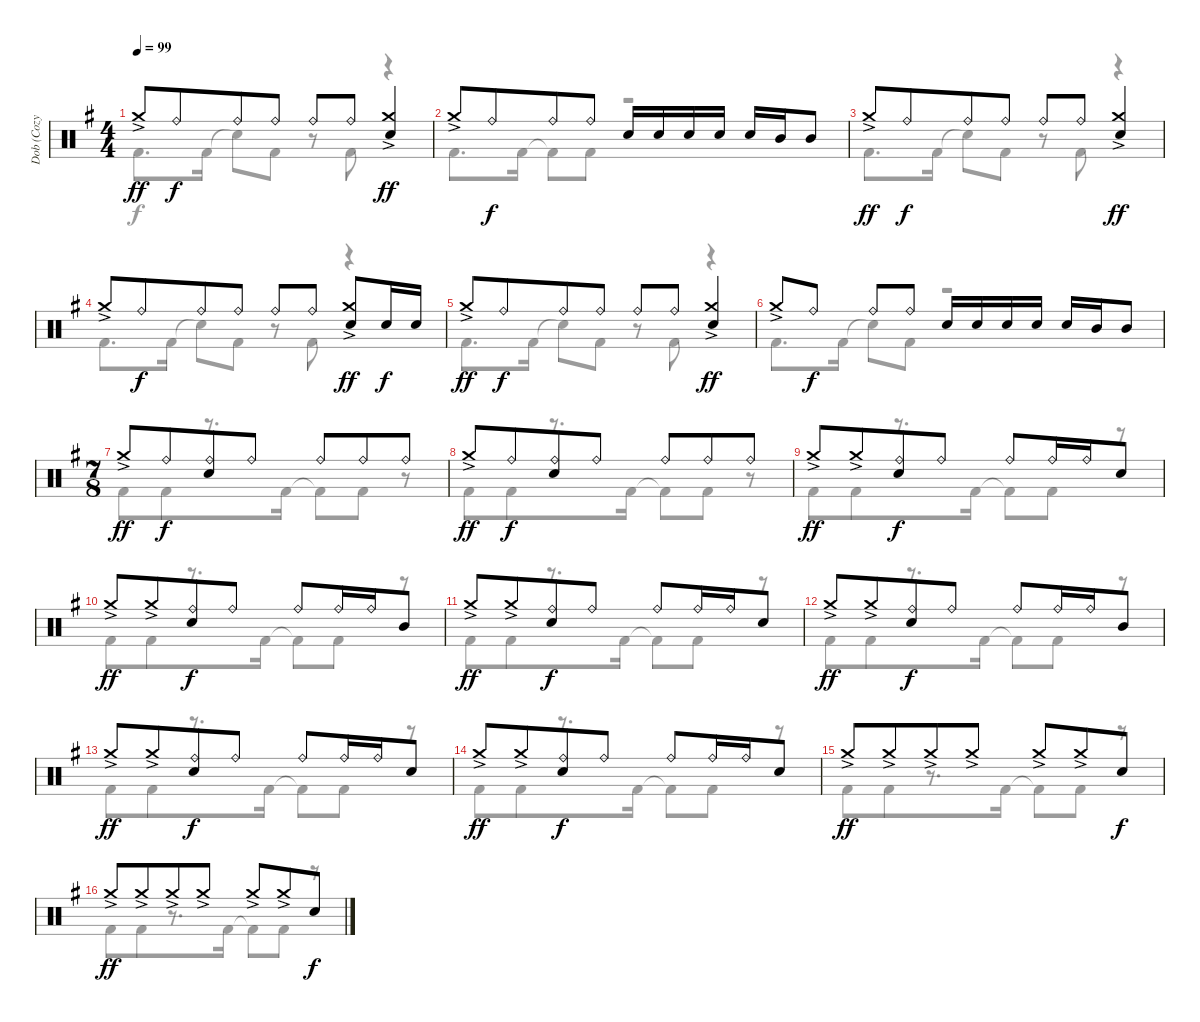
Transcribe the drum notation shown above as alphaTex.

\track ("Dob (Cozy Powell)" "Dob (Cozy ") {instrument percussion}
\staff {score}
\articulation defaults
\voice
\ts (4 4)
\tempo 99
\clef neutral
\ks g "Crash medium (hit)"{ac}.8{dy ff} "Ride (bell)".8{dy f beam merge} "Ride (bell)".8{beam merge} "Ride (bell)".8{beam split} "Ride (bell)".8{beam merge} "Ride (bell)".8
("Crash medium (hit)"{ac} "Electric Snare (hit)").4{dy ff} |
"Crash medium (hit)"{ac}.8 "Ride (bell)".8{dy f beam merge} "Ride (bell)".8{beam merge} "Ride (bell)".8 "Electric Snare (hit)".16 "Electric Snare (hit)".16 "Electric Snare (hit)".16 "Electric Snare (hit)".16 "Electric Snare (hit)".16 "Mid Tom (hit)".16 "Mid Tom (hit)".8 |
"Crash medium (hit)"{ac}.8{dy ff} "Ride (bell)".8{dy f beam merge} "Ride (bell)".8{beam merge} "Ride (bell)".8{beam split} "Ride (bell)".8{beam merge} "Ride (bell)".8 ("Crash medium (hit)"{ac} "Electric Snare (hit)").4{dy ff} |
"Crash medium (hit)"{ac}.8 "Ride (bell)".8{dy f beam merge} "Ride (bell)".8{beam merge} "Ride (bell)".8{beam split} "Ride (bell)".8{beam merge} "Ride (bell)".8{beam split} ("Crash medium (hit)"{ac} "Electric Snare (hit)").8{dy ff beam merge} "Electric Snare (hit)".16{dy f beam merge} "Electric Snare (hit)".16 |
"Crash medium (hit)"{ac}.8{dy ff} "Ride (bell)".8{dy f beam merge} "Ride (bell)".8{beam merge} "Ride (bell)".8{beam split} "Ride (bell)".8{beam merge} "Ride (bell)".8 ("Crash medium (hit)"{ac} "Electric Snare (hit)").4{dy ff} |
"Crash medium (hit)"{ac}.8 "Ride (bell)".8{dy f} "Ride (bell)".8{beam merge} "Ride (bell)".8 "Electric Snare (hit)".16 "Electric Snare (hit)".16 "Electric Snare (hit)".16 "Electric Snare (hit)".16 "Electric Snare (hit)".16 "Mid Tom (hit)".16 "Mid Tom (hit)".8 |
\ts (7 8)
"Crash medium (hit)"{ac}.8{dy ff beam merge} "Ride (bell)".8{dy f beam merge} ("Ride (bell)" "Electric Snare (hit)").8{beam merge} "Ride (bell)".8{beam split} "Ride (bell)".8{beam merge} "Ride (bell)".8{beam merge} "Ride (bell)".8 |
"Crash medium (hit)"{ac}.8{dy ff beam merge} "Ride (bell)".8{dy f beam merge} ("Ride (bell)" "Electric Snare (hit)").8{beam merge} "Ride (bell)".8{beam split} "Ride (bell)".8{beam merge} "Ride (bell)".8{beam merge} "Ride (bell)".8 |
"Crash medium (hit)"{ac}.8{dy ff beam merge} "Crash medium (hit)"{ac}.8{beam merge} ("Ride (bell)" "Electric Snare (hit)").8{dy f beam merge} "Ride (bell)".8{beam split} "Ride (bell)".8{beam merge} "Ride (bell)".16 "Ride (bell)".16 "Electric Snare (hit)".8 |
"Crash medium (hit)"{ac}.8{dy ff beam merge} "Crash medium (hit)"{ac}.8{beam merge} ("Ride (bell)" "Electric Snare (hit)").8{dy f beam merge} "Ride (bell)".8{beam split} "Ride (bell)".8{beam merge} "Ride (bell)".16 "Ride (bell)".16 "Mid Tom (hit)".8 |
"Crash medium (hit)"{ac}.8{dy ff beam merge} "Crash medium (hit)"{ac}.8{beam merge} ("Ride (bell)" "Electric Snare (hit)").8{dy f beam merge} "Ride (bell)".8{beam split} "Ride (bell)".8{beam merge} "Ride (bell)".16 "Ride (bell)".16 "Electric Snare (hit)".8 |
"Crash medium (hit)"{ac}.8{dy ff beam merge} "Crash medium (hit)"{ac}.8{beam merge} ("Ride (bell)" "Electric Snare (hit)").8{dy f beam merge} "Ride (bell)".8{beam split} "Ride (bell)".8{beam merge} "Ride (bell)".16 "Ride (bell)".16 "Mid Tom (hit)".8 |
"Crash medium (hit)"{ac}.8{dy ff beam merge} "Crash medium (hit)"{ac}.8{beam merge} ("Ride (bell)" "Electric Snare (hit)").8{dy f beam merge} "Ride (bell)".8{beam split} "Ride (bell)".8{beam merge} "Ride (bell)".16 "Ride (bell)".16 "Electric Snare (hit)".8 |
"Crash medium (hit)"{ac}.8{dy ff beam merge} "Crash medium (hit)"{ac}.8{beam merge} ("Ride (bell)" "Electric Snare (hit)").8{dy f beam merge} "Ride (bell)".8{beam split} "Ride (bell)".8{beam merge} "Ride (bell)".16 "Ride (bell)".16 "Electric Snare (hit)".8 |
"Crash medium (hit)"{ac}.8{dy ff} "Crash medium (hit)"{ac}.8 "Crash medium (hit)"{ac}.8{beam merge} "Crash medium (hit)"{ac}.8{beam split} "Crash medium (hit)"{ac}.8{beam merge} "Crash medium (hit)"{ac}.8 "Electric Snare (hit)".8{dy f} |
"Crash medium (hit)"{ac}.8{dy ff} "Crash medium (hit)"{ac}.8 "Crash medium (hit)"{ac}.8{beam merge} "Crash medium (hit)"{ac}.8{beam split} "Crash medium (hit)"{ac}.8{beam merge} "Crash medium (hit)"{ac}.8 "Electric Snare (hit)".8{dy f}
\voice
\clef neutral
\ottava regular
\simile none
\ks g "Kick (hit) 2".8{d dy f} "Kick (hit) 2".16 "Snare (hit)"{t}.8 "Kick (hit) 2".8
r.8 "Kick (hit) 2".8 r.4 |
"Kick (hit) 2".8{d} "Kick (hit) 2".16 "Kick (hit) 2"{t}.8 "Kick (hit) 2".8 r.2 |
"Kick (hit) 2".8{d} "Kick (hit) 2".16 "Snare (hit)"{t}.8 "Kick (hit) 2".8 r.8 "Kick (hit) 2".8 r.4 |
"Kick (hit) 2".8{d} "Kick (hit) 2".16 "Snare (hit)"{t}.8 "Kick (hit) 2".8 r.8 "Kick (hit) 2".8 r.4 |
"Kick (hit) 2".8{d} "Kick (hit) 2".16 "Snare (hit)"{t}.8 "Kick (hit) 2".8 r.8 "Kick (hit) 2".8 r.4 |
"Kick (hit) 2".8{d} "Kick (hit) 2".16 "Snare (hit)"{t}.8 "Kick (hit) 2".8 r.2 |
"Kick (hit) 2".8{beam merge} "Kick (hit) 2".8 r.8{d} "Kick (hit) 2".16 "Kick (hit) 2"{t}.8{beam merge} "Kick (hit) 2".8 r.8 |
"Kick (hit) 2".8{beam merge} "Kick (hit) 2".8 r.8{d} "Kick (hit) 2".16 "Kick (hit) 2"{t}.8{beam merge} "Kick (hit) 2".8 r.8 |
"Kick (hit) 2".8{beam merge} "Kick (hit) 2".8 r.8{d} "Kick (hit) 2".16 "Kick (hit) 2"{t}.8{beam merge} "Kick (hit) 2".8 r.8 |
"Kick (hit) 2".8{beam merge} "Kick (hit) 2".8 r.8{d} "Kick (hit) 2".16 "Kick (hit) 2"{t}.8{beam merge} "Kick (hit) 2".8 r.8 |
"Kick (hit) 2".8{beam merge} "Kick (hit) 2".8 r.8{d} "Kick (hit) 2".16 "Kick (hit) 2"{t}.8{beam merge} "Kick (hit) 2".8 r.8 |
"Kick (hit) 2".8{beam merge} "Kick (hit) 2".8 r.8{d} "Kick (hit) 2".16 "Kick (hit) 2"{t}.8{beam merge} "Kick (hit) 2".8 r.8 |
"Kick (hit) 2".8{beam merge} "Kick (hit) 2".8 r.8{d} "Kick (hit) 2".16 "Kick (hit) 2"{t}.8{beam merge} "Kick (hit) 2".8 r.8 |
"Kick (hit) 2".8{beam merge} "Kick (hit) 2".8 r.8{d} "Kick (hit) 2".16 "Kick (hit) 2"{t}.8{beam merge} "Kick (hit) 2".8 r.8 |
"Kick (hit) 2".8{beam merge} "Kick (hit) 2".8 r.8{d} "Kick (hit) 2".16 "Kick (hit) 2"{t}.8{beam merge} "Kick (hit) 2".8 r.8 |
"Kick (hit) 2".8{beam merge} "Kick (hit) 2".8 r.8{d} "Kick (hit) 2".16 "Kick (hit) 2"{t}.8{beam merge} "Kick (hit) 2".8 r.8
